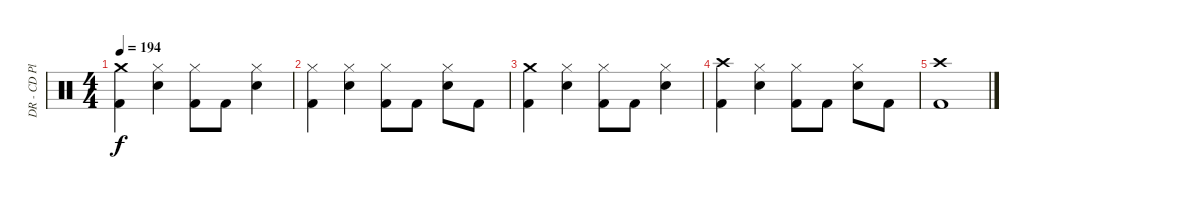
\track ("DR - CD Player" "DR - CD Pl") {instrument percussion}
\staff {score}
\articulation defaults
\ts (4 4)
\tempo 194
\clef neutral
\ks c
("Kick (hit) 2" "Crash medium (hit)").4{dy f} ("Electric Snare (hit)" "Hi-Hat (closed)").4 ("Kick (hit) 2" "Hi-Hat (closed)").8 "Kick (hit) 2".8 ("Electric Snare (hit)" "Hi-Hat (closed)").4 |
("Kick (hit) 2" "Hi-Hat (closed)").4 ("Electric Snare (hit)" "Hi-Hat (closed)").4 ("Kick (hit) 2" "Hi-Hat (closed)").8 "Kick (hit) 2".8 ("Electric Snare (hit)" "Hi-Hat (closed)").8 "Kick (hit) 2".8 |
("Kick (hit) 2" "Crash medium (hit)").4 ("Electric Snare (hit)" "Hi-Hat (closed)").4 ("Kick (hit) 2" "Hi-Hat (closed)").8 "Kick (hit) 2".8 ("Electric Snare (hit)" "Hi-Hat (closed)").4 |
("Kick (hit) 2" "Crash high (hit)").4 ("Electric Snare (hit)" "Hi-Hat (closed)").4 ("Kick (hit) 2" "Hi-Hat (closed)").8 "Kick (hit) 2".8 ("Electric Snare (hit)" "Hi-Hat (closed)").8 "Kick (hit) 2".8 |
("Kick (hit) 2" "Crash high (hit)").1
